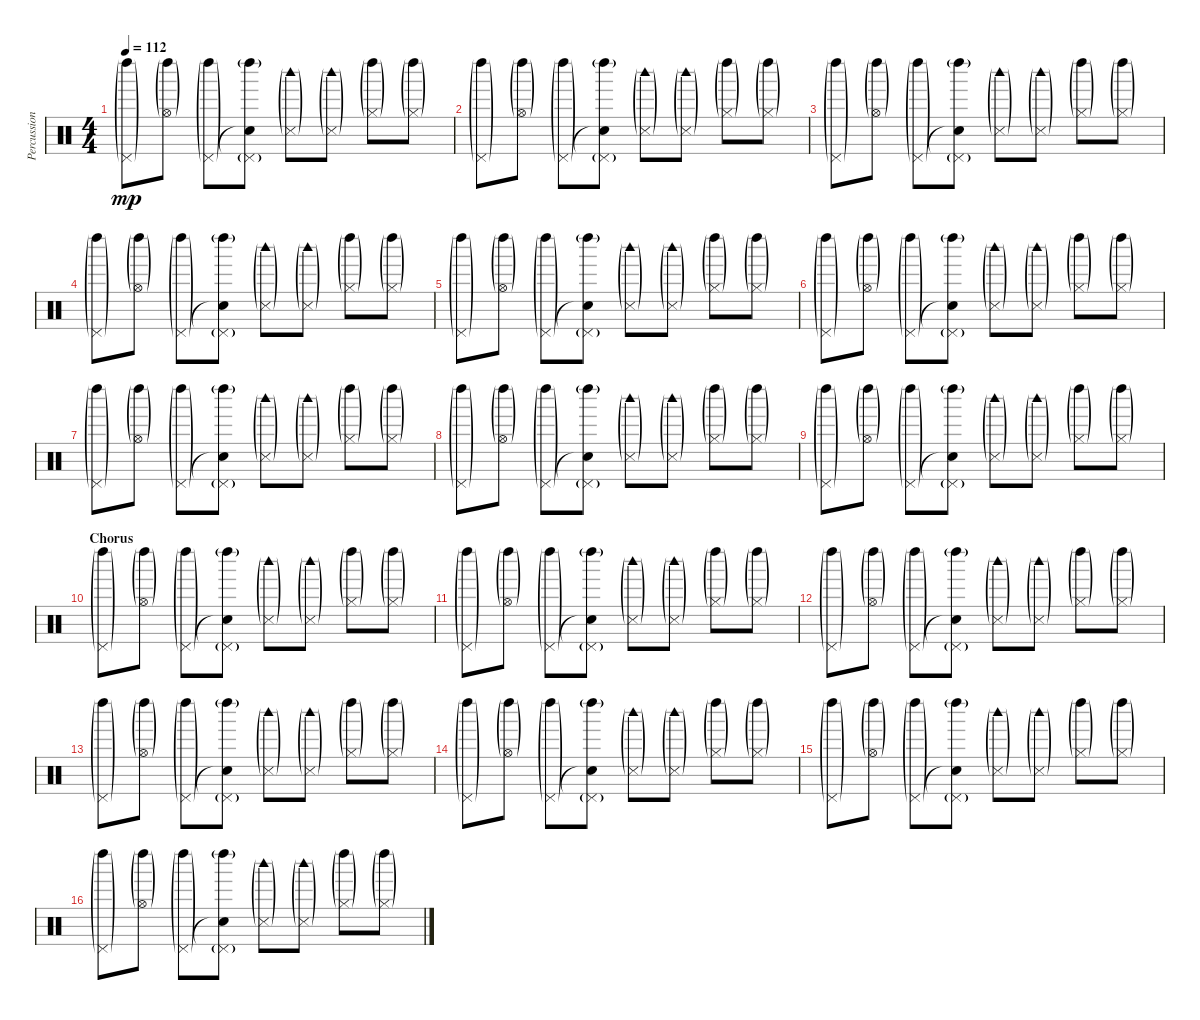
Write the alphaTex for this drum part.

\track ("Percussion" "Percussion") {instrument percussion}
\staff {score}
\articulation defaults
\ts (4 4)
\tempo 112
\clef neutral
\ks c
("Left Maraca (hit)"{g} "Pedal Hi-Hat (hit)"{g}).8{dy mp} ("Left Maraca (hit)"{g} "Hi-Hat (open)"{g}).8 ("Left Maraca (hit)"{g} "Pedal Hi-Hat (hit)"{g}).8 ("Left Maraca (hit)"{g} "Snare (hit)"{t} "Pedal Hi-Hat (hit)"{g}).8 ("Snare (side stick) 3"{g} "Woodblock high (hit)"{g}).8 ("Snare (side stick) 3"{g} "Woodblock high (hit)"{g}).8 ("Left Maraca (hit)"{g} "Hi-Hat (closed)"{g}).8 ("Left Maraca (hit)"{g} "Hi-Hat (closed)"{g}).8 |
("Left Maraca (hit)"{g} "Pedal Hi-Hat (hit)"{g}).8 ("Left Maraca (hit)"{g} "Hi-Hat (open)"{g}).8 ("Left Maraca (hit)"{g} "Pedal Hi-Hat (hit)"{g}).8 ("Left Maraca (hit)"{g} "Snare (hit)"{t} "Pedal Hi-Hat (hit)"{g}).8 ("Snare (side stick) 3"{g} "Woodblock high (hit)"{g}).8 ("Snare (side stick) 3"{g} "Woodblock high (hit)"{g}).8 ("Left Maraca (hit)"{g} "Hi-Hat (closed)"{g}).8 ("Left Maraca (hit)"{g} "Hi-Hat (closed)"{g}).8 |
("Left Maraca (hit)"{g} "Pedal Hi-Hat (hit)"{g}).8 ("Left Maraca (hit)"{g} "Hi-Hat (open)"{g}).8 ("Left Maraca (hit)"{g} "Pedal Hi-Hat (hit)"{g}).8 ("Left Maraca (hit)"{g} "Snare (hit)"{t} "Pedal Hi-Hat (hit)"{g}).8 ("Snare (side stick) 3"{g} "Woodblock high (hit)"{g}).8 ("Snare (side stick) 3"{g} "Woodblock high (hit)"{g}).8 ("Left Maraca (hit)"{g} "Hi-Hat (closed)"{g}).8 ("Left Maraca (hit)"{g} "Hi-Hat (closed)"{g}).8 |
("Left Maraca (hit)"{g} "Pedal Hi-Hat (hit)"{g}).8 ("Left Maraca (hit)"{g} "Hi-Hat (open)"{g}).8 ("Left Maraca (hit)"{g} "Pedal Hi-Hat (hit)"{g}).8 ("Left Maraca (hit)"{g} "Snare (hit)"{t} "Pedal Hi-Hat (hit)"{g}).8 ("Snare (side stick) 3"{g} "Woodblock high (hit)"{g}).8 ("Snare (side stick) 3"{g} "Woodblock high (hit)"{g}).8 ("Left Maraca (hit)"{g} "Hi-Hat (closed)"{g}).8 ("Left Maraca (hit)"{g} "Hi-Hat (closed)"{g}).8 |
("Left Maraca (hit)"{g} "Pedal Hi-Hat (hit)"{g}).8 ("Left Maraca (hit)"{g} "Hi-Hat (open)"{g}).8 ("Left Maraca (hit)"{g} "Pedal Hi-Hat (hit)"{g}).8 ("Left Maraca (hit)"{g} "Snare (hit)"{t} "Pedal Hi-Hat (hit)"{g}).8 ("Snare (side stick) 3"{g} "Woodblock high (hit)"{g}).8 ("Snare (side stick) 3"{g} "Woodblock high (hit)"{g}).8 ("Left Maraca (hit)"{g} "Hi-Hat (closed)"{g}).8 ("Left Maraca (hit)"{g} "Hi-Hat (closed)"{g}).8 |
("Left Maraca (hit)"{g} "Pedal Hi-Hat (hit)"{g}).8 ("Left Maraca (hit)"{g} "Hi-Hat (open)"{g}).8 ("Left Maraca (hit)"{g} "Pedal Hi-Hat (hit)"{g}).8 ("Left Maraca (hit)"{g} "Snare (hit)"{t} "Pedal Hi-Hat (hit)"{g}).8 ("Snare (side stick) 3"{g} "Woodblock high (hit)"{g}).8 ("Snare (side stick) 3"{g} "Woodblock high (hit)"{g}).8 ("Left Maraca (hit)"{g} "Hi-Hat (closed)"{g}).8 ("Left Maraca (hit)"{g} "Hi-Hat (closed)"{g}).8 |
("Left Maraca (hit)"{g} "Pedal Hi-Hat (hit)"{g}).8 ("Left Maraca (hit)"{g} "Hi-Hat (open)"{g}).8 ("Left Maraca (hit)"{g} "Pedal Hi-Hat (hit)"{g}).8 ("Left Maraca (hit)"{g} "Snare (hit)"{t} "Pedal Hi-Hat (hit)"{g}).8 ("Snare (side stick) 3"{g} "Woodblock high (hit)"{g}).8 ("Snare (side stick) 3"{g} "Woodblock high (hit)"{g}).8 ("Left Maraca (hit)"{g} "Hi-Hat (closed)"{g}).8 ("Left Maraca (hit)"{g} "Hi-Hat (closed)"{g}).8 |
("Left Maraca (hit)"{g} "Pedal Hi-Hat (hit)"{g}).8 ("Left Maraca (hit)"{g} "Hi-Hat (open)"{g}).8 ("Left Maraca (hit)"{g} "Pedal Hi-Hat (hit)"{g}).8 ("Left Maraca (hit)"{g} "Snare (hit)"{t} "Pedal Hi-Hat (hit)"{g}).8 ("Snare (side stick) 3"{g} "Woodblock high (hit)"{g}).8 ("Snare (side stick) 3"{g} "Woodblock high (hit)"{g}).8 ("Left Maraca (hit)"{g} "Hi-Hat (closed)"{g}).8 ("Left Maraca (hit)"{g} "Hi-Hat (closed)"{g}).8 |
("Left Maraca (hit)"{g} "Pedal Hi-Hat (hit)"{g}).8 ("Left Maraca (hit)"{g} "Hi-Hat (open)"{g}).8 ("Left Maraca (hit)"{g} "Pedal Hi-Hat (hit)"{g}).8 ("Left Maraca (hit)"{g} "Snare (hit)"{t} "Pedal Hi-Hat (hit)"{g}).8 ("Snare (side stick) 3"{g} "Woodblock high (hit)"{g}).8 ("Snare (side stick) 3"{g} "Woodblock high (hit)"{g}).8 ("Left Maraca (hit)"{g} "Hi-Hat (closed)"{g}).8 ("Left Maraca (hit)"{g} "Hi-Hat (closed)"{g}).8 |
\section ("" "Chorus")
("Left Maraca (hit)"{g} "Pedal Hi-Hat (hit)"{g}).8 ("Left Maraca (hit)"{g} "Hi-Hat (open)"{g}).8 ("Left Maraca (hit)"{g} "Pedal Hi-Hat (hit)"{g}).8 ("Left Maraca (hit)"{g} "Snare (hit)"{t} "Pedal Hi-Hat (hit)"{g}).8 ("Snare (side stick) 3"{g} "Woodblock high (hit)"{g}).8 ("Snare (side stick) 3"{g} "Woodblock high (hit)"{g}).8 ("Left Maraca (hit)"{g} "Hi-Hat (closed)"{g}).8 ("Left Maraca (hit)"{g} "Hi-Hat (closed)"{g}).8 |
("Left Maraca (hit)"{g} "Pedal Hi-Hat (hit)"{g}).8 ("Left Maraca (hit)"{g} "Hi-Hat (open)"{g}).8 ("Left Maraca (hit)"{g} "Pedal Hi-Hat (hit)"{g}).8 ("Left Maraca (hit)"{g} "Snare (hit)"{t} "Pedal Hi-Hat (hit)"{g}).8 ("Snare (side stick) 3"{g} "Woodblock high (hit)"{g}).8 ("Snare (side stick) 3"{g} "Woodblock high (hit)"{g}).8 ("Left Maraca (hit)"{g} "Hi-Hat (closed)"{g}).8 ("Left Maraca (hit)"{g} "Hi-Hat (closed)"{g}).8 |
("Left Maraca (hit)"{g} "Pedal Hi-Hat (hit)"{g}).8 ("Left Maraca (hit)"{g} "Hi-Hat (open)"{g}).8 ("Left Maraca (hit)"{g} "Pedal Hi-Hat (hit)"{g}).8 ("Left Maraca (hit)"{g} "Snare (hit)"{t} "Pedal Hi-Hat (hit)"{g}).8 ("Snare (side stick) 3"{g} "Woodblock high (hit)"{g}).8 ("Snare (side stick) 3"{g} "Woodblock high (hit)"{g}).8 ("Left Maraca (hit)"{g} "Hi-Hat (closed)"{g}).8 ("Left Maraca (hit)"{g} "Hi-Hat (closed)"{g}).8 |
("Left Maraca (hit)"{g} "Pedal Hi-Hat (hit)"{g}).8 ("Left Maraca (hit)"{g} "Hi-Hat (open)"{g}).8 ("Left Maraca (hit)"{g} "Pedal Hi-Hat (hit)"{g}).8 ("Left Maraca (hit)"{g} "Snare (hit)"{t} "Pedal Hi-Hat (hit)"{g}).8 ("Snare (side stick) 3"{g} "Woodblock high (hit)"{g}).8 ("Snare (side stick) 3"{g} "Woodblock high (hit)"{g}).8 ("Left Maraca (hit)"{g} "Hi-Hat (closed)"{g}).8 ("Left Maraca (hit)"{g} "Hi-Hat (closed)"{g}).8 |
("Left Maraca (hit)"{g} "Pedal Hi-Hat (hit)"{g}).8 ("Left Maraca (hit)"{g} "Hi-Hat (open)"{g}).8 ("Left Maraca (hit)"{g} "Pedal Hi-Hat (hit)"{g}).8 ("Left Maraca (hit)"{g} "Snare (hit)"{t} "Pedal Hi-Hat (hit)"{g}).8 ("Snare (side stick) 3"{g} "Woodblock high (hit)"{g}).8 ("Snare (side stick) 3"{g} "Woodblock high (hit)"{g}).8 ("Left Maraca (hit)"{g} "Hi-Hat (closed)"{g}).8 ("Left Maraca (hit)"{g} "Hi-Hat (closed)"{g}).8 |
("Left Maraca (hit)"{g} "Pedal Hi-Hat (hit)"{g}).8 ("Left Maraca (hit)"{g} "Hi-Hat (open)"{g}).8 ("Left Maraca (hit)"{g} "Pedal Hi-Hat (hit)"{g}).8 ("Left Maraca (hit)"{g} "Snare (hit)"{t} "Pedal Hi-Hat (hit)"{g}).8 ("Snare (side stick) 3"{g} "Woodblock high (hit)"{g}).8 ("Snare (side stick) 3"{g} "Woodblock high (hit)"{g}).8 ("Left Maraca (hit)"{g} "Hi-Hat (closed)"{g}).8 ("Left Maraca (hit)"{g} "Hi-Hat (closed)"{g}).8 |
("Left Maraca (hit)"{g} "Pedal Hi-Hat (hit)"{g}).8 ("Left Maraca (hit)"{g} "Hi-Hat (open)"{g}).8 ("Left Maraca (hit)"{g} "Pedal Hi-Hat (hit)"{g}).8 ("Left Maraca (hit)"{g} "Snare (hit)"{t} "Pedal Hi-Hat (hit)"{g}).8 ("Snare (side stick) 3"{g} "Woodblock high (hit)"{g}).8 ("Snare (side stick) 3"{g} "Woodblock high (hit)"{g}).8 ("Left Maraca (hit)"{g} "Hi-Hat (closed)"{g}).8 ("Left Maraca (hit)"{g} "Hi-Hat (closed)"{g}).8
